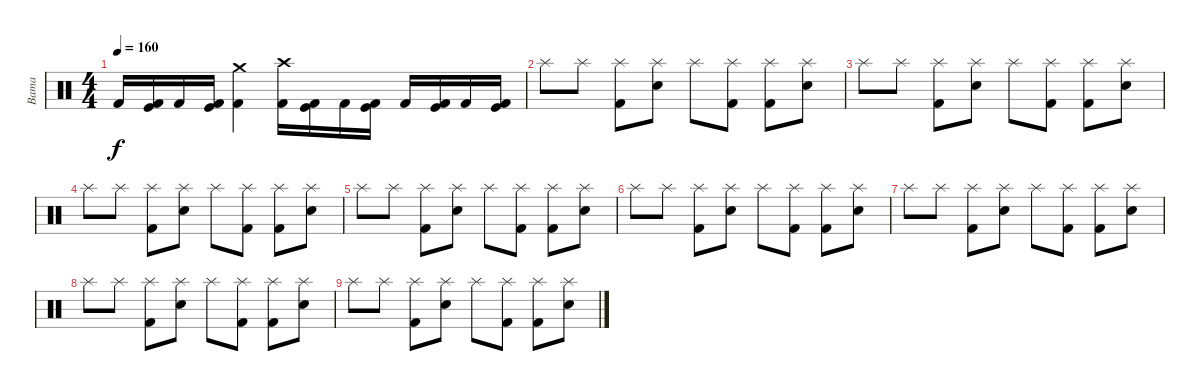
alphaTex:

\track ("Bama" "Bama") {instrument percussion}
\staff {score}
\articulation defaults
\ts (4 4)
\tempo 160
\clef neutral
\ks c "Kick (hit) 2".16{dy f}
("Kick (hit)" "Kick (hit) 2").16 "Kick (hit) 2".16 ("Kick (hit)" "Kick (hit) 2").16 ("Crash medium (hit)" "Kick (hit) 2").4 ("Crash high (hit)" "Kick (hit) 2").16 ("Kick (hit)" "Kick (hit) 2").16 "Kick (hit) 2".16 ("Kick (hit)" "Kick (hit) 2").16 "Kick (hit) 2".16 ("Kick (hit)" "Kick (hit) 2").16 "Kick (hit) 2".16 ("Kick (hit)" "Kick (hit) 2").16 |
"Splash (hit)".8 "Splash (hit)".8 ("Splash (hit)" "Kick (hit) 2").8 ("Splash (hit)" "Electric Snare (hit)").8 "Splash (hit)".8 ("Splash (hit)" "Kick (hit) 2").8 ("Splash (hit)" "Kick (hit) 2").8 ("Splash (hit)" "Electric Snare (hit)").8 |
"Splash (hit)".8 "Splash (hit)".8 ("Splash (hit)" "Kick (hit) 2").8 ("Splash (hit)" "Electric Snare (hit)").8 "Splash (hit)".8 ("Splash (hit)" "Kick (hit) 2").8 ("Splash (hit)" "Kick (hit) 2").8 ("Splash (hit)" "Electric Snare (hit)").8 |
"Splash (hit)".8 "Splash (hit)".8 ("Splash (hit)" "Kick (hit) 2").8 ("Splash (hit)" "Electric Snare (hit)").8 "Splash (hit)".8 ("Splash (hit)" "Kick (hit) 2").8 ("Splash (hit)" "Kick (hit) 2").8 ("Splash (hit)" "Electric Snare (hit)").8 |
"Splash (hit)".8 "Splash (hit)".8 ("Splash (hit)" "Kick (hit) 2").8 ("Splash (hit)" "Electric Snare (hit)").8 "Splash (hit)".8 ("Splash (hit)" "Kick (hit) 2").8 ("Splash (hit)" "Kick (hit) 2").8 ("Splash (hit)" "Electric Snare (hit)").8 |
"Splash (hit)".8 "Splash (hit)".8 ("Splash (hit)" "Kick (hit) 2").8 ("Splash (hit)" "Electric Snare (hit)").8 "Splash (hit)".8 ("Splash (hit)" "Kick (hit) 2").8 ("Splash (hit)" "Kick (hit) 2").8 ("Splash (hit)" "Electric Snare (hit)").8 |
"Splash (hit)".8 "Splash (hit)".8 ("Splash (hit)" "Kick (hit) 2").8 ("Splash (hit)" "Electric Snare (hit)").8 "Splash (hit)".8 ("Splash (hit)" "Kick (hit) 2").8 ("Splash (hit)" "Kick (hit) 2").8 ("Splash (hit)" "Electric Snare (hit)").8 |
"Splash (hit)".8 "Splash (hit)".8 ("Splash (hit)" "Kick (hit) 2").8 ("Splash (hit)" "Electric Snare (hit)").8 "Splash (hit)".8 ("Splash (hit)" "Kick (hit) 2").8 ("Splash (hit)" "Kick (hit) 2").8 ("Splash (hit)" "Electric Snare (hit)").8 |
"Splash (hit)".8 "Splash (hit)".8 ("Splash (hit)" "Kick (hit) 2").8 ("Splash (hit)" "Electric Snare (hit)").8 "Splash (hit)".8 ("Splash (hit)" "Kick (hit) 2").8 ("Splash (hit)" "Kick (hit) 2").8 ("Splash (hit)" "Electric Snare (hit)").8
